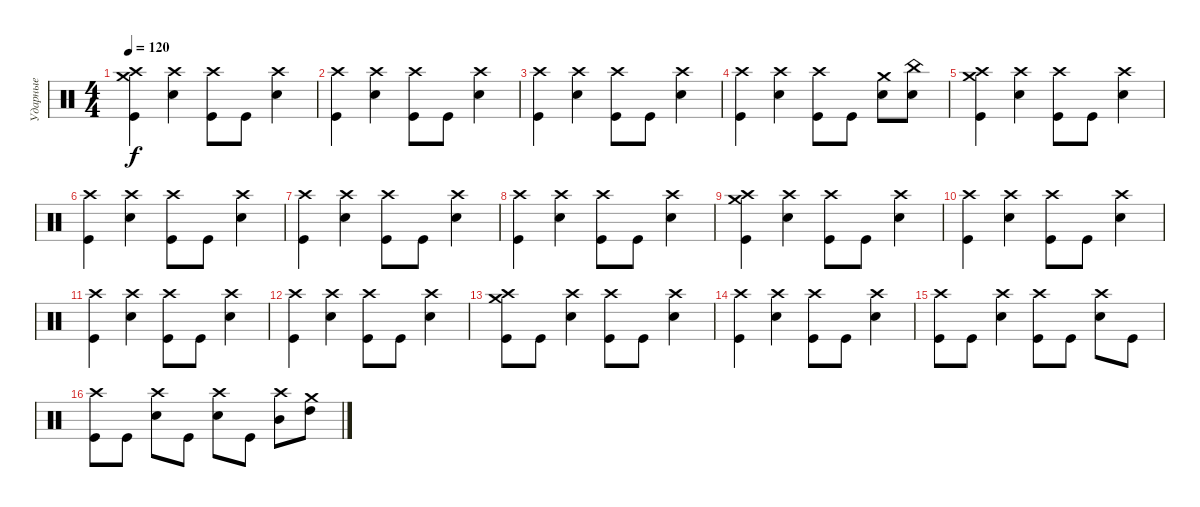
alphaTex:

\track ("Ударные" "Ударные") {instrument percussion}
\staff {score}
\articulation defaults
\ts (4 4)
\tempo 120
\clef neutral
\ks c
("Crash medium (hit)" "Crash high (hit)" "Kick (hit)").4{dy f} ("Crash high (hit)" "Snare (hit) 2").4 ("Crash high (hit)" "Kick (hit)").8 "Kick (hit)".8 ("Crash high (hit)" "Snare (hit) 2").4 |
("Crash high (hit)" "Kick (hit)").4 ("Crash high (hit)" "Snare (hit) 2").4 ("Crash high (hit)" "Kick (hit)").8 "Kick (hit)".8 ("Crash high (hit)" "Snare (hit) 2").4 |
("Crash high (hit)" "Kick (hit)").4 ("Crash high (hit)" "Snare (hit) 2").4 ("Crash high (hit)" "Kick (hit)").8 "Kick (hit)".8 ("Crash high (hit)" "Snare (hit) 2").4 |
("Crash high (hit)" "Kick (hit)").4 ("Crash high (hit)" "Snare (hit) 2").4 ("Crash high (hit)" "Kick (hit)").8 "Kick (hit)".8 ("Crash medium (hit)" "Snare (hit) 2").8 ("China (hit)" "Snare (hit) 2").8 |
("Crash medium (hit)" "Crash high (hit)" "Kick (hit)").4 ("Crash high (hit)" "Snare (hit) 2").4 ("Crash high (hit)" "Kick (hit)").8 "Kick (hit)".8 ("Crash high (hit)" "Snare (hit) 2").4 |
("Crash high (hit)" "Kick (hit)").4 ("Crash high (hit)" "Snare (hit) 2").4 ("Crash high (hit)" "Kick (hit)").8 "Kick (hit)".8 ("Crash high (hit)" "Snare (hit) 2").4 |
("Crash high (hit)" "Kick (hit)").4 ("Crash high (hit)" "Snare (hit) 2").4 ("Crash high (hit)" "Kick (hit)").8 "Kick (hit)".8 ("Crash high (hit)" "Snare (hit) 2").4 |
("Crash high (hit)" "Kick (hit)").4 ("Crash high (hit)" "Snare (hit) 2").4 ("Crash high (hit)" "Kick (hit)").8 "Kick (hit)".8 ("Crash high (hit)" "Snare (hit) 2").4 |
("Crash medium (hit)" "Crash high (hit)" "Kick (hit)").4 ("Crash high (hit)" "Snare (hit) 2").4 ("Crash high (hit)" "Kick (hit)").8 "Kick (hit)".8 ("Crash high (hit)" "Snare (hit) 2").4 |
("Crash high (hit)" "Kick (hit)").4 ("Crash high (hit)" "Snare (hit) 2").4 ("Crash high (hit)" "Kick (hit)").8 "Kick (hit)".8 ("Crash high (hit)" "Snare (hit) 2").4 |
("Crash high (hit)" "Kick (hit)").4 ("Crash high (hit)" "Snare (hit) 2").4 ("Crash high (hit)" "Kick (hit)").8 "Kick (hit)".8 ("Crash high (hit)" "Snare (hit) 2").4 |
("Crash high (hit)" "Kick (hit)").4 ("Crash high (hit)" "Snare (hit) 2").4 ("Crash high (hit)" "Kick (hit)").8 "Kick (hit)".8 ("Crash high (hit)" "Snare (hit) 2").4 |
("Crash medium (hit)" "Crash high (hit)" "Kick (hit)").8 "Kick (hit)".8 ("Crash high (hit)" "Snare (hit) 2").4 ("Crash high (hit)" "Kick (hit)").8 "Kick (hit)".8 ("Crash high (hit)" "Snare (hit) 2").4 |
("Crash high (hit)" "Kick (hit)").4 ("Crash high (hit)" "Snare (hit) 2").4 ("Crash high (hit)" "Kick (hit)").8 "Kick (hit)".8 ("Crash high (hit)" "Snare (hit) 2").4 |
("Crash high (hit)" "Kick (hit)").8 "Kick (hit)".8 ("Crash high (hit)" "Snare (hit) 2").4 ("Crash high (hit)" "Kick (hit)").8 "Kick (hit)".8 ("Crash high (hit)" "Snare (hit) 2").8 "Kick (hit)".8 |
("Crash high (hit)" "Kick (hit)").8 "Kick (hit)".8 ("Crash high (hit)" "Snare (hit) 2").8 "Kick (hit)".8 ("Crash high (hit)" "Snare (hit) 2").8 "Kick (hit)".8 ("Crash high (hit)" "Mid Tom (hit)").8 ("Crash medium (hit)" "High Tom (hit)").8
